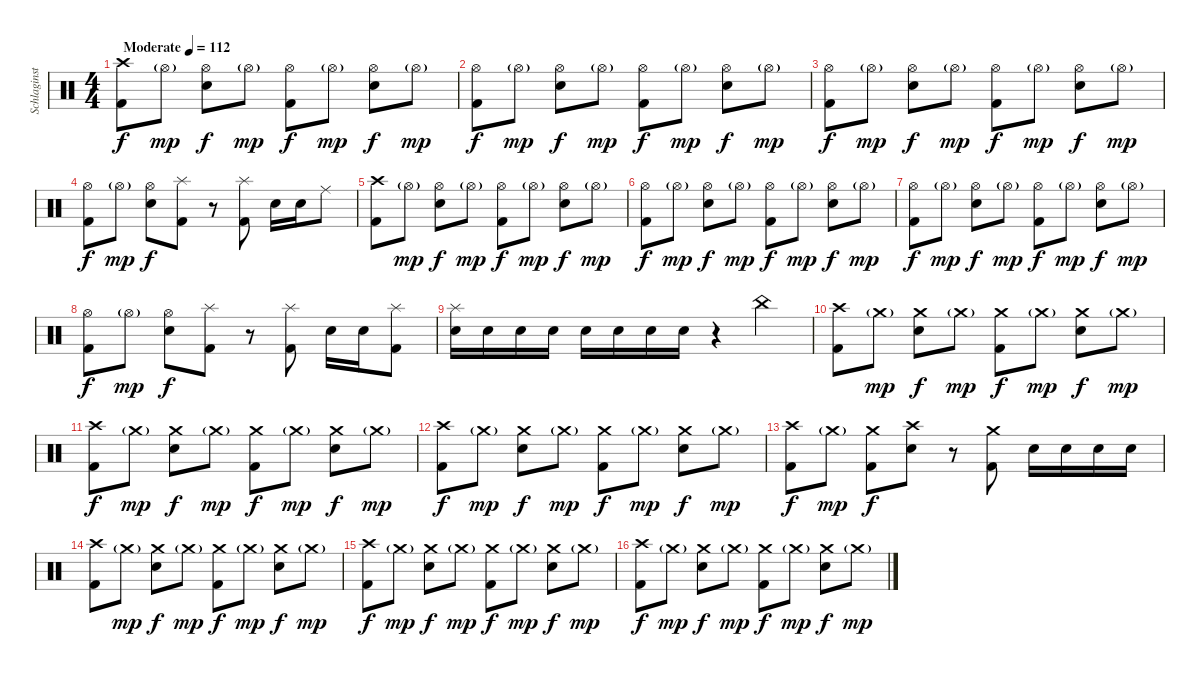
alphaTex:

\track ("Schlaginstrumente - Auswahl" "Schlaginst") {instrument percussion}
\staff {score}
\articulation defaults
\ts (4 4)
\tempo (112 "Moderate")
\clef neutral
\ks c
("Crash high (hit)" "Kick (hit) 2").8{dy f} "Hi-Hat (open)"{g}.8{dy mp} ("Hi-Hat (open)" "Snare (hit) 2").8{dy f} "Hi-Hat (open)"{g}.8{dy mp} ("Hi-Hat (open)" "Kick (hit) 2").8{dy f} "Hi-Hat (open)"{g}.8{dy mp} ("Hi-Hat (open)" "Snare (hit) 2").8{dy f} "Hi-Hat (open)"{g}.8{dy mp} |
("Hi-Hat (open)" "Kick (hit) 2").8{dy f} "Hi-Hat (open)"{g}.8{dy mp} ("Hi-Hat (open)" "Snare (hit) 2").8{dy f} "Hi-Hat (open)"{g}.8{dy mp} ("Hi-Hat (open)" "Kick (hit) 2").8{dy f} "Hi-Hat (open)"{g}.8{dy mp} ("Hi-Hat (open)" "Snare (hit) 2").8{dy f} "Hi-Hat (open)"{g}.8{dy mp} |
("Hi-Hat (open)" "Kick (hit) 2").8{dy f} "Hi-Hat (open)"{g}.8{dy mp} ("Hi-Hat (open)" "Snare (hit) 2").8{dy f} "Hi-Hat (open)"{g}.8{dy mp} ("Hi-Hat (open)" "Kick (hit) 2").8{dy f} "Hi-Hat (open)"{g}.8{dy mp} ("Hi-Hat (open)" "Snare (hit) 2").8{dy f} "Hi-Hat (open)"{g}.8{dy mp} |
("Hi-Hat (open)" "Kick (hit) 2").8{dy f} "Hi-Hat (open)"{g}.8{dy mp} ("Hi-Hat (open)" "Snare (hit) 2").8{dy f} ("Splash (hit)" "Kick (hit) 2").8 r.8 ("Splash (hit)" "Kick (hit) 2").8 "Snare (hit) 2".16 "Snare (hit) 2".16 "Ride (middle)".8 |
("Crash high (hit)" "Kick (hit) 2").8 "Hi-Hat (open)"{g}.8{dy mp} ("Hi-Hat (open)" "Snare (hit) 2").8{dy f} "Hi-Hat (open)"{g}.8{dy mp} ("Hi-Hat (open)" "Kick (hit) 2").8{dy f} "Hi-Hat (open)"{g}.8{dy mp} ("Hi-Hat (open)" "Snare (hit) 2").8{dy f} "Hi-Hat (open)"{g}.8{dy mp} |
("Hi-Hat (open)" "Kick (hit) 2").8{dy f} "Hi-Hat (open)"{g}.8{dy mp} ("Hi-Hat (open)" "Snare (hit) 2").8{dy f} "Hi-Hat (open)"{g}.8{dy mp} ("Hi-Hat (open)" "Kick (hit) 2").8{dy f} "Hi-Hat (open)"{g}.8{dy mp} ("Hi-Hat (open)" "Snare (hit) 2").8{dy f} "Hi-Hat (open)"{g}.8{dy mp} |
("Hi-Hat (open)" "Kick (hit) 2").8{dy f} "Hi-Hat (open)"{g}.8{dy mp} ("Hi-Hat (open)" "Snare (hit) 2").8{dy f} "Hi-Hat (open)"{g}.8{dy mp} ("Hi-Hat (open)" "Kick (hit) 2").8{dy f} "Hi-Hat (open)"{g}.8{dy mp} ("Hi-Hat (open)" "Snare (hit) 2").8{dy f} "Hi-Hat (open)"{g}.8{dy mp} |
("Hi-Hat (open)" "Kick (hit) 2").8{dy f} "Hi-Hat (open)"{g}.8{dy mp} ("Hi-Hat (open)" "Snare (hit) 2").8{dy f} ("Splash (hit)" "Kick (hit) 2").8 r.8 ("Splash (hit)" "Kick (hit) 2").8 "Snare (hit) 2".16 "Snare (hit) 2".16 ("Splash (hit)" "Kick (hit) 2").8 |
("Splash (hit)" "Snare (hit) 2").16 "Snare (hit) 2".16 "Snare (hit) 2".16 "Snare (hit) 2".16 "Snare (hit) 2".16 "Snare (hit) 2".16 "Snare (hit) 2".16 "Snare (hit) 2".16 r.4 "China (hit)".4 |
("Crash high (hit)" "Kick (hit) 2").8 "Crash medium (hit)"{g}.8{dy mp} ("Crash medium (hit)" "Snare (hit) 2").8{dy f} "Crash medium (hit)"{g}.8{dy mp} ("Crash medium (hit)" "Kick (hit) 2").8{dy f} "Crash medium (hit)"{g}.8{dy mp} ("Crash medium (hit)" "Snare (hit) 2").8{dy f} "Crash medium (hit)"{g}.8{dy mp} |
("Crash high (hit)" "Kick (hit) 2").8{dy f} "Crash medium (hit)"{g}.8{dy mp} ("Crash medium (hit)" "Snare (hit) 2").8{dy f} "Crash medium (hit)"{g}.8{dy mp} ("Crash medium (hit)" "Kick (hit) 2").8{dy f} "Crash medium (hit)"{g}.8{dy mp} ("Crash medium (hit)" "Snare (hit) 2").8{dy f} "Crash medium (hit)"{g}.8{dy mp} |
("Crash high (hit)" "Kick (hit) 2").8{dy f} "Crash medium (hit)"{g}.8{dy mp} ("Crash medium (hit)" "Snare (hit) 2").8{dy f} "Crash medium (hit)"{g}.8{dy mp} ("Crash medium (hit)" "Kick (hit) 2").8{dy f} "Crash medium (hit)"{g}.8{dy mp} ("Crash medium (hit)" "Snare (hit) 2").8{dy f} "Crash medium (hit)"{g}.8{dy mp} |
("Crash high (hit)" "Kick (hit) 2").8{dy f} "Crash medium (hit)"{g}.8{dy mp} ("Crash medium (hit)" "Kick (hit) 2").8{dy f} ("Crash high (hit)" "Snare (hit) 2").8 r.8 ("Crash medium (hit)" "Kick (hit) 2").8 "Snare (hit) 2".16 "Snare (hit) 2".16 "Snare (hit) 2".16 "Snare (hit) 2".16 |
("Crash high (hit)" "Kick (hit) 2").8 "Crash medium (hit)"{g}.8{dy mp} ("Crash medium (hit)" "Snare (hit) 2").8{dy f} "Crash medium (hit)"{g}.8{dy mp} ("Crash medium (hit)" "Kick (hit) 2").8{dy f} "Crash medium (hit)"{g}.8{dy mp} ("Crash medium (hit)" "Snare (hit) 2").8{dy f} "Crash medium (hit)"{g}.8{dy mp} |
("Crash high (hit)" "Kick (hit) 2").8{dy f} "Crash medium (hit)"{g}.8{dy mp} ("Crash medium (hit)" "Snare (hit) 2").8{dy f} "Crash medium (hit)"{g}.8{dy mp} ("Crash medium (hit)" "Kick (hit) 2").8{dy f} "Crash medium (hit)"{g}.8{dy mp} ("Crash medium (hit)" "Snare (hit) 2").8{dy f} "Crash medium (hit)"{g}.8{dy mp} |
("Crash high (hit)" "Kick (hit) 2").8{dy f} "Crash medium (hit)"{g}.8{dy mp} ("Crash medium (hit)" "Snare (hit) 2").8{dy f} "Crash medium (hit)"{g}.8{dy mp} ("Crash medium (hit)" "Kick (hit) 2").8{dy f} "Crash medium (hit)"{g}.8{dy mp} ("Crash medium (hit)" "Snare (hit) 2").8{dy f} "Crash medium (hit)"{g}.8{dy mp}
